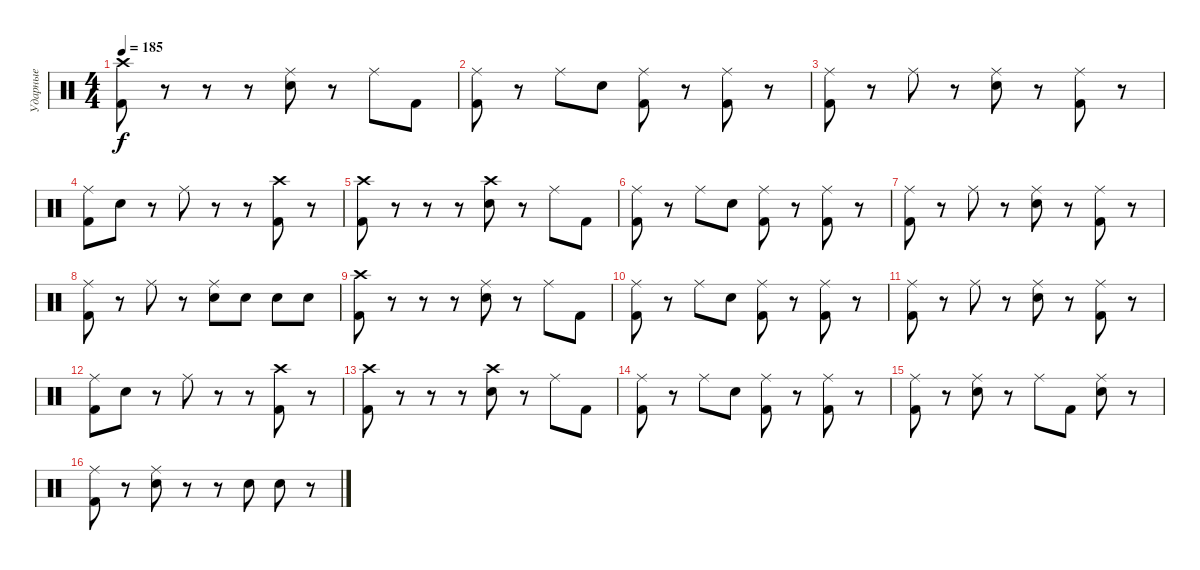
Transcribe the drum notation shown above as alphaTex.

\track ("Ударные" "Ударные") {instrument percussion}
\staff {score}
\articulation defaults
\ts (4 4)
\tempo 185
\clef neutral
\ks c
("Kick (hit) 2" "Crash high (hit)").8{dy f} r.8 r.8 r.8 ("Electric Snare (hit)" "Ride (middle)").8 r.8 "Ride (middle)".8 "Kick (hit) 2".8 |
("Kick (hit) 2" "Ride (middle)").8 r.8 "Ride (middle)".8 "Electric Snare (hit)".8 ("Kick (hit) 2" "Ride (middle)").8 r.8 ("Kick (hit) 2" "Ride (middle)").8 r.8 |
("Kick (hit) 2" "Ride (middle)").8 r.8 "Ride (middle)".8 r.8 ("Electric Snare (hit)" "Ride (middle)").8 r.8 ("Kick (hit) 2" "Ride (middle)").8 r.8 |
("Kick (hit) 2" "Ride (middle)").8 "Electric Snare (hit)".8 r.8 "Ride (middle)".8 r.8 r.8 ("Kick (hit) 2" "Crash high (hit)").8 r.8 |
("Kick (hit) 2" "Crash high (hit)").8 r.8 r.8 r.8 ("Electric Snare (hit)" "Crash high (hit)").8 r.8 "Ride (middle)".8 "Kick (hit) 2".8 |
("Kick (hit) 2" "Ride (middle)").8 r.8 "Ride (middle)".8 "Electric Snare (hit)".8 ("Kick (hit) 2" "Ride (middle)").8 r.8 ("Kick (hit) 2" "Ride (middle)").8 r.8 |
("Kick (hit) 2" "Ride (middle)").8 r.8 "Ride (middle)".8 r.8 ("Electric Snare (hit)" "Ride (middle)").8 r.8 ("Kick (hit) 2" "Ride (middle)").8 r.8 |
("Kick (hit) 2" "Ride (middle)").8 r.8 "Ride (middle)".8 r.8 ("Electric Snare (hit)" "Ride (middle)").8 "Electric Snare (hit)".8 "Electric Snare (hit)".8 "Electric Snare (hit)".8 |
("Kick (hit) 2" "Crash high (hit)").8 r.8 r.8 r.8 ("Electric Snare (hit)" "Ride (middle)").8 r.8 "Ride (middle)".8 "Kick (hit) 2".8 |
("Kick (hit) 2" "Ride (middle)").8 r.8 "Ride (middle)".8 "Electric Snare (hit)".8 ("Kick (hit) 2" "Ride (middle)").8 r.8 ("Kick (hit) 2" "Ride (middle)").8 r.8 |
("Kick (hit) 2" "Ride (middle)").8 r.8 "Ride (middle)".8 r.8 ("Electric Snare (hit)" "Ride (middle)").8 r.8 ("Kick (hit) 2" "Ride (middle)").8 r.8 |
("Kick (hit) 2" "Ride (middle)").8 "Electric Snare (hit)".8 r.8 "Ride (middle)".8 r.8 r.8 ("Kick (hit) 2" "Crash high (hit)").8 r.8 |
("Kick (hit) 2" "Crash high (hit)").8 r.8 r.8 r.8 ("Electric Snare (hit)" "Crash high (hit)").8 r.8 "Ride (middle)".8 "Kick (hit) 2".8 |
("Kick (hit) 2" "Ride (middle)").8 r.8 "Ride (middle)".8 "Electric Snare (hit)".8 ("Kick (hit) 2" "Ride (middle)").8 r.8 ("Kick (hit) 2" "Ride (middle)").8 r.8 |
("Kick (hit) 2" "Ride (middle)").8 r.8 ("Electric Snare (hit)" "Ride (middle)").8 r.8 "Ride (middle)".8 "Kick (hit) 2".8 ("Electric Snare (hit)" "Ride (middle)").8 r.8 |
("Kick (hit) 2" "Ride (middle)").8 r.8 ("Electric Snare (hit)" "Ride (middle)").8 r.8 r.8 "Electric Snare (hit)".8 "Electric Snare (hit)".8 r.8
